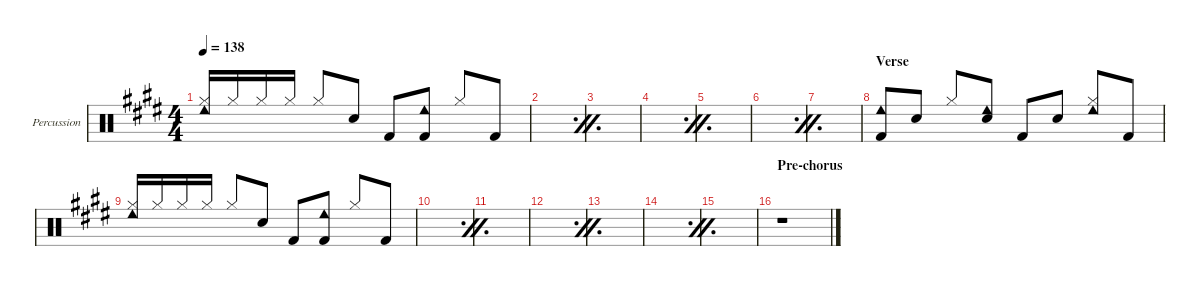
\defaultSystemsLayout 4
\hideDynamics
\bracketExtendMode nobrackets
\firstSystemTrackNameOrientation horizontal
\track ("Percussion" "Percussion") {defaultSystemsLayout 4 mute instrument percussion}
\staff {score}
\articulation defaults
\ts (4 4)
\tempo 138
\clef neutral
\scale
0.245002
\ks c#minor
("Hi-Hat (closed)"{acc forcenatural} "Cowbell low (hit)"{acc forcenatural}).16{dy f beam Up} "Hi-Hat (closed)"{acc forcenatural}.16{beam Up} "Hi-Hat (closed)"{acc forcenatural}.16{beam Up} "Hi-Hat (closed)"{acc forcenatural}.16{beam Up beam split} "Hi-Hat (closed)"{acc forcenatural}.8{beam Up} "Snare (hit) 2"{acc forcenatural}.8{beam Up} "Kick (hit) 2"{acc forcenatural}.8{beam Up} ("Kick (hit) 2"{acc forcenatural} "Cowbell low (hit)"{acc forcenatural}).8{beam Up} "Hi-Hat (closed)"{acc forcenatural}.8{beam Up} "Kick (hit) 2"{acc forcenatural}.8{beam Up} |
\simile firstofdouble
\scale
0.245002 |
\simile secondofdouble
\scale
0.242787 |
\simile firstofdouble
\scale
0.26603 |
\simile secondofdouble
\scale
0.243921 |
\simile firstofdouble
\scale
0.243921 |
\simile secondofdouble
\scale
0.246127 |
\section ("" "Verse")
\simile none
\scale
0.267209 ("Kick (hit) 2"{acc forcenatural} "Cowbell low (hit)"{acc forcenatural}).8{beam Up} "Snare (hit) 2"{acc forcenatural}.8{beam Up} "Hi-Hat (closed)"{acc forcenatural}.8{beam Up} ("Snare (hit) 2"{acc forcenatural} "Cowbell low (hit)"{acc forcenatural}).8{beam Up} "Kick (hit) 2"{acc forcenatural}.8{beam Up} "Snare (hit) 2"{acc forcenatural}.8{beam Up} ("Hi-Hat (closed)"{acc forcenatural} "Cowbell low (hit)"{acc forcenatural}).8{beam Up} "Kick (hit) 2"{acc forcenatural}.8{beam Up} |
\scale
0.245002 ("Hi-Hat (closed)"{acc forcenatural} "Cowbell low (hit)"{acc forcenatural}).16{beam Up} "Hi-Hat (closed)"{acc forcenatural}.16{beam Up} "Hi-Hat (closed)"{acc forcenatural}.16{beam Up} "Hi-Hat (closed)"{acc forcenatural}.16{beam Up beam split} "Hi-Hat (closed)"{acc forcenatural}.8{beam Up} "Snare (hit) 2"{acc forcenatural}.8{beam Up} "Kick (hit) 2"{acc forcenatural}.8{beam Up} ("Kick (hit) 2"{acc forcenatural} "Cowbell low (hit)"{acc forcenatural}).8{beam Up} "Hi-Hat (closed)"{acc forcenatural}.8{beam Up} "Kick (hit) 2"{acc forcenatural}.8{beam Up} |
\simile firstofdouble
\scale
0.245002 |
\simile secondofdouble
\scale
0.242787 |
\simile firstofdouble
\scale
0.26603 |
\simile secondofdouble
\scale
0.243921 |
\simile firstofdouble
\scale
0.243921 |
\simile secondofdouble
\scale
0.246127 |
\section ("" "Pre-chorus")
\simile none
\scale
0.267209 r.1{beam Down}
